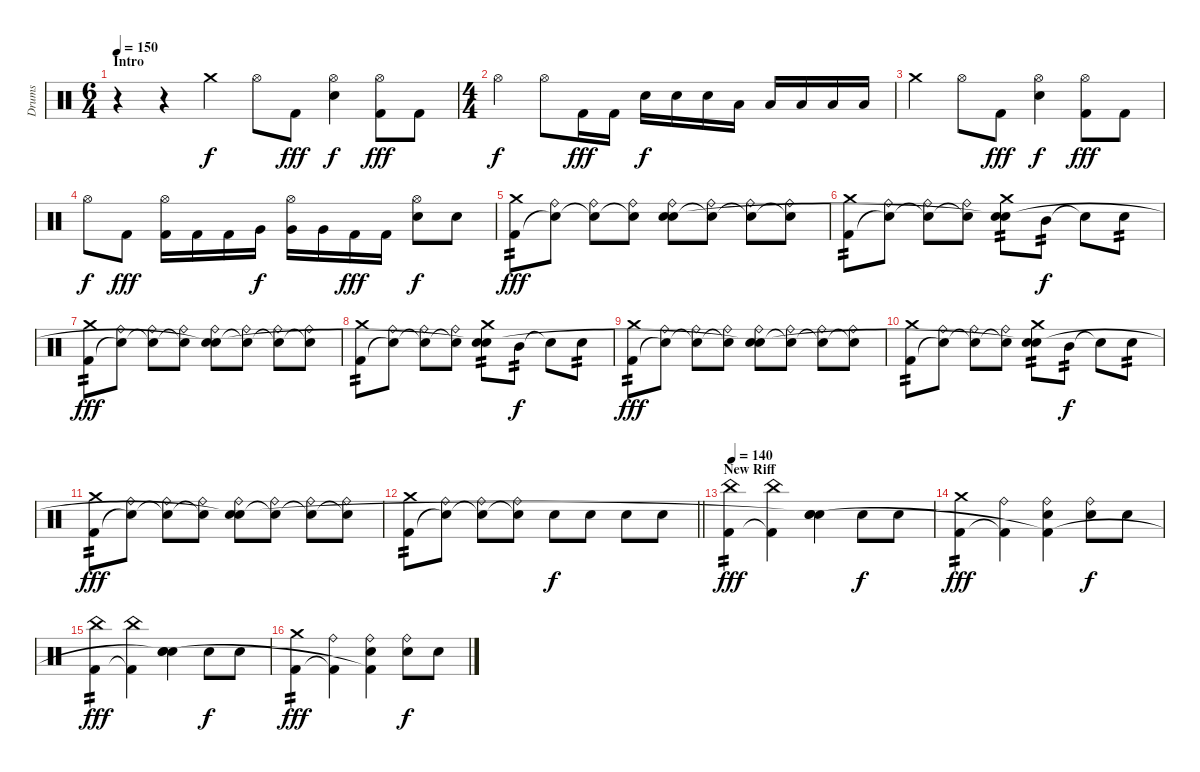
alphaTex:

\track ("Drums" "Drums") {instrument percussion}
\staff {score}
\articulation defaults
\ts (6 4)
\section ("" "Intro")
\tempo 150
\clef neutral
\ks c
r.4{dy f} r.4 "Crash medium (hit)".4 "Hi-Hat (open)".8 "Kick (hit) 2".8{dy fff} ("Hi-Hat (open)" "Electric Snare (hit)").4{dy f} ("Hi-Hat (open)" "Kick (hit) 2").8{dy fff} "Kick (hit) 2".8 |
\ts (4 4)
"Hi-Hat (open)".4{dy f} "Hi-Hat (open)".8 "Kick (hit) 2".16{dy fff} "Kick (hit) 2".16 "Electric Snare (hit)".16{dy f} "Electric Snare (hit)".16 "Electric Snare (hit)".16 "Low Tom (hit)".16 "Low Tom (hit)".16 "Low Tom (hit)".16 "Low Floor Tom (hit)".16 "Low Floor Tom (hit)".16 |
"Crash medium (hit)".4 "Hi-Hat (open)".8 "Kick (hit) 2".8{dy fff} ("Hi-Hat (open)" "Electric Snare (hit)").4{dy f} ("Hi-Hat (open)" "Kick (hit) 2").8{dy fff} "Kick (hit) 2".8 |
"Hi-Hat (open)".8{dy f} "Kick (hit) 2".8{dy fff} ("Hi-Hat (open)" "Kick (hit) 2").16 "Kick (hit) 2".16 "Kick (hit) 2".16 "Very Low Tom (hit)".16{dy f} ("Hi-Hat (open)" "Very Low Tom (hit)").16 "Very Low Tom (hit)".16 "Kick (hit) 2".16{dy fff} "Kick (hit) 2".16 ("Hi-Hat (open)" "Electric Snare (hit)").8{dy f} "Electric Snare (hit)".8 |
("Crash medium (hit)" "Kick (hit) 2").8{tp 2 dy fff} ("Ride (bell)" "Snare (hit)"{t}).8 ("Ride (bell)" "Snare (hit)"{t}).8 ("Ride (bell)" "Snare (hit)"{t}).8 ("Ride (bell)" "Electric Snare (hit)" "Snare (hit)").8 ("Ride (bell)" "Snare (hit)"{t}).8 ("Ride (bell)" "Snare (hit)"{t}).8 ("Ride (bell)" "Snare (hit)"{t}).8 |
("Crash medium (hit)" "Kick (hit) 2").8{tp 2} ("Ride (bell)" "Snare (hit)"{t}).8 ("Ride (bell)" "Snare (hit)"{t}).8 ("Ride (bell)" "Snare (hit)"{t}).8 ("Crash medium (hit)" "Electric Snare (hit)" "Snare (hit)"{t}).8{tp 2} "Mid Tom (hit)".8{tp 2 dy f} "Electric Snare (hit)"{t}.8 "Electric Snare (hit)".8{tp 2} |
("Crash medium (hit)" "Kick (hit) 2").8{tp 2 dy fff} ("Ride (bell)" "Snare (hit)"{t}).8 ("Ride (bell)" "Snare (hit)"{t}).8 ("Ride (bell)" "Snare (hit)"{t}).8 ("Ride (bell)" "Electric Snare (hit)" "Snare (hit)"{t}).8 ("Ride (bell)" "Snare (hit)"{t}).8 ("Ride (bell)" "Snare (hit)"{t}).8 ("Ride (bell)" "Snare (hit)"{t}).8 |
("Crash medium (hit)" "Kick (hit) 2").8{tp 2} ("Ride (bell)" "Snare (hit)"{t}).8 ("Ride (bell)" "Snare (hit)"{t}).8 ("Ride (bell)" "Snare (hit)"{t}).8 ("Crash medium (hit)" "Electric Snare (hit)" "Snare (hit)"{t}).8{tp 2} "Mid Tom (hit)".8{tp 2 dy f} "Electric Snare (hit)"{t}.8 "Electric Snare (hit)".8{tp 2} |
("Crash medium (hit)" "Kick (hit) 2").8{tp 2 dy fff} ("Ride (bell)" "Snare (hit)"{t}).8 ("Ride (bell)" "Snare (hit)"{t}).8 ("Ride (bell)" "Snare (hit)"{t}).8 ("Ride (bell)" "Electric Snare (hit)" "Snare (hit)"{t}).8 ("Ride (bell)" "Snare (hit)"{t}).8 ("Ride (bell)" "Snare (hit)"{t}).8 ("Ride (bell)" "Snare (hit)"{t}).8 |
("Crash medium (hit)" "Kick (hit) 2").8{tp 2} ("Ride (bell)" "Snare (hit)"{t}).8 ("Ride (bell)" "Snare (hit)"{t}).8 ("Ride (bell)" "Snare (hit)"{t}).8 ("Crash medium (hit)" "Electric Snare (hit)" "Snare (hit)"{t}).8{tp 2} "Mid Tom (hit)".8{tp 2 dy f} "Electric Snare (hit)"{t}.8 "Electric Snare (hit)".8{tp 2} |
("Crash medium (hit)" "Kick (hit) 2").8{tp 2 dy fff} ("Ride (bell)" "Snare (hit)"{t}).8 ("Ride (bell)" "Snare (hit)"{t}).8 ("Ride (bell)" "Snare (hit)"{t}).8 ("Ride (bell)" "Electric Snare (hit)" "Snare (hit)"{t}).8 ("Ride (bell)" "Snare (hit)"{t}).8 ("Ride (bell)" "Snare (hit)"{t}).8 ("Ride (bell)" "Snare (hit)"{t}).8 |
\barLineRight lightlight
("Crash medium (hit)" "Kick (hit) 2").8{tp 2} ("Ride (bell)" "Snare (hit)"{t}).8 ("Ride (bell)" "Snare (hit)"{t}).8 ("Ride (bell)" "Snare (hit)"{t}).8 "Electric Snare (hit)".8{dy f} "Electric Snare (hit)".8 "Electric Snare (hit)".8 "Electric Snare (hit)".8 |
\section ("" "New Riff")
\tempo 140
("China (hit)" "Kick (hit) 2").4{tp 2 dy fff} ("China (hit)" "Kick (hit) 2"{t}).4 ("Electric Snare (hit)" "Electric Snare (hit)" "Snare (hit)"{t}).4{bd 240} "Electric Snare (hit)".8{dy f} "Electric Snare (hit)".8 |
("Crash medium (hit)" "Kick (hit) 2").4{tp 2 dy fff} ("Ride (bell)" "Kick (hit) 2"{t}).4 ("Ride (bell)" "Electric Snare (hit)" "Kick (hit) 2"{t}).4 ("Ride (bell)" "Electric Snare (hit)").8{dy f} "Electric Snare (hit)".8 |
("China (hit)" "Kick (hit) 2").4{tp 2 dy fff} ("China (hit)" "Kick (hit) 2"{t}).4 ("Electric Snare (hit)" "Electric Snare (hit)" "Snare (hit)"{t}).4{bd 240} "Electric Snare (hit)".8{dy f} "Electric Snare (hit)".8 |
("Crash medium (hit)" "Kick (hit) 2").4{tp 2 dy fff} ("Ride (bell)" "Kick (hit) 2"{t}).4 ("Ride (bell)" "Electric Snare (hit)" "Kick (hit) 2"{t}).4 ("Ride (bell)" "Electric Snare (hit)").8{dy f} "Electric Snare (hit)".8
